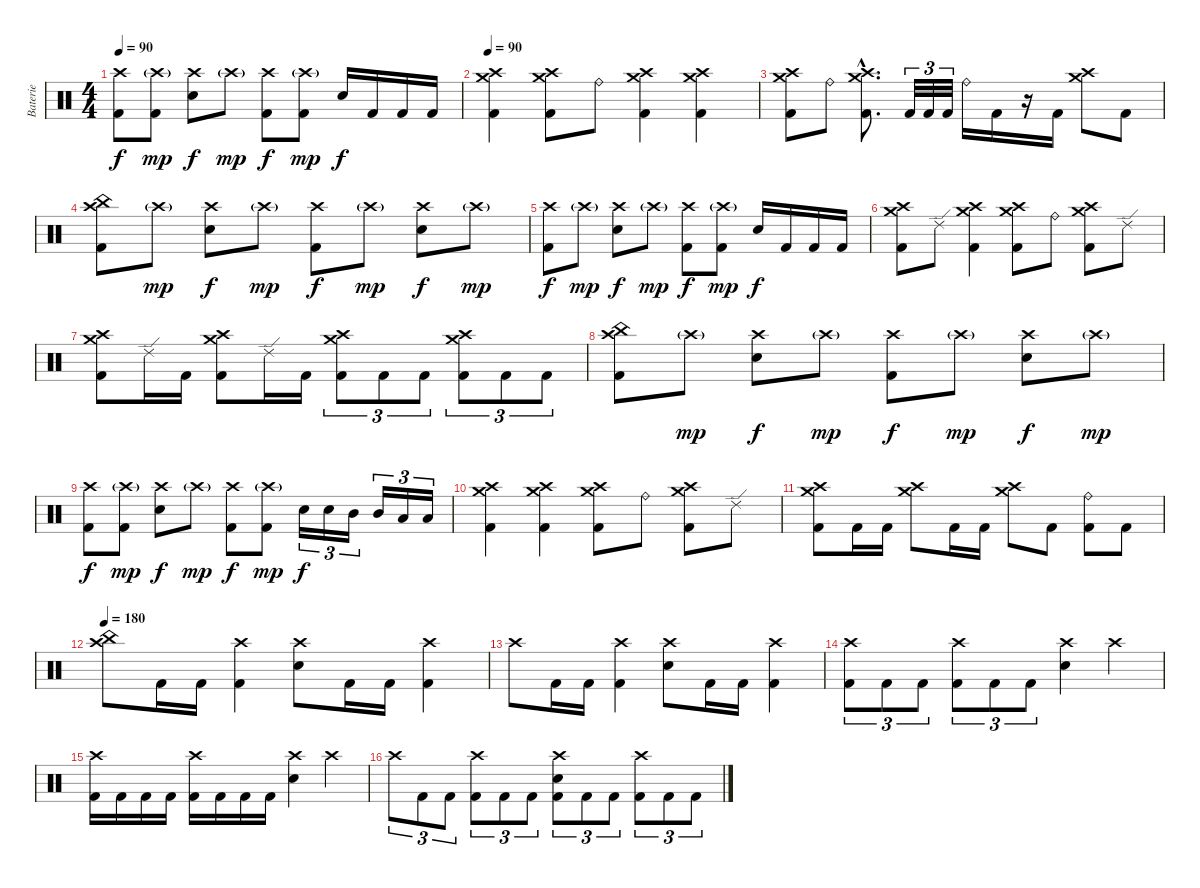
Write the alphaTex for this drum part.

\track ("Baterie" "Baterie") {instrument percussion}
\staff {score}
\articulation defaults
\ts (4 4)
\tempo 90
\clef neutral
\ks c
("Crash high (hit)" "Kick (hit) 2").8{dy f} ("Crash high (hit)"{g} "Kick (hit) 2").8{dy mp} ("Crash high (hit)" "Electric Snare (hit)").8{dy f} "Crash high (hit)"{g}.8{dy mp} ("Crash high (hit)" "Kick (hit) 2").8{dy f} ("Crash high (hit)"{g} "Kick (hit) 2").8{dy mp} "Electric Snare (hit)".16{dy f} "Kick (hit) 2".16 "Kick (hit) 2".16 "Kick (hit) 2".16 |
\tempo 90
("Crash high (hit)" "Crash medium (hit)" "Kick (hit) 2").4 ("Crash medium (hit)" "Crash high (hit)" "Kick (hit) 2").8 "Ride (bell)".8 ("Crash medium (hit)" "Crash high (hit)" "Kick (hit) 2").4 ("Crash medium (hit)" "Crash high (hit)" "Kick (hit) 2").4 |
("Crash high (hit)" "Crash medium (hit)" "Kick (hit) 2").8 "Ride (bell)".8 ("Crash high (hit)"{hac} "Crash medium (hit)"{hac} "Kick (hit) 2"{hac}).8{d} "Kick (hit) 2".32{tu (3 2)} "Kick (hit) 2".32{tu (3 2)} "Kick (hit) 2".32{tu (3 2)} "Ride (bell)".16 "Kick (hit) 2".16 r.16 "Kick (hit) 2".16 ("Crash medium (hit)" "Crash high (hit)").8 "Kick (hit) 2".8 |
("China (hit)" "Crash high (hit)" "Kick (hit) 2").8 "Crash high (hit)"{g}.8{dy mp} ("Crash high (hit)" "Electric Snare (hit)").8{dy f} "Crash high (hit)"{g}.8{dy mp} ("Crash high (hit)" "Kick (hit) 2").8{dy f} "Crash high (hit)"{g}.8{dy mp} ("Crash high (hit)" "Electric Snare (hit)").8{dy f} "Crash high (hit)"{g}.8{dy mp} |
("Crash high (hit)" "Kick (hit) 2").8{dy f} "Crash high (hit)"{g}.8{dy mp} ("Crash high (hit)" "Electric Snare (hit)").8{dy f} "Crash high (hit)"{g}.8{dy mp} ("Crash high (hit)" "Kick (hit) 2").8{dy f} ("Crash high (hit)"{g} "Kick (hit) 2").8{dy mp} "Electric Snare (hit)".16{dy f} "Kick (hit) 2".16 "Kick (hit) 2".16 "Kick (hit) 2".16 |
("Crash high (hit)" "Crash medium (hit)" "Kick (hit) 2").8 "Ride (edge) 2".8 ("Crash medium (hit)" "Crash high (hit)" "Kick (hit) 2").4 ("Crash high (hit)" "Crash medium (hit)" "Kick (hit) 2").8 "Ride (bell)".8 ("Crash high (hit)" "Crash medium (hit)" "Kick (hit) 2").8 "Ride (edge) 2".8 |
("Crash medium (hit)" "Crash high (hit)" "Kick (hit) 2").8 "Ride (edge) 2".16 "Kick (hit) 2".16 ("Crash medium (hit)" "Crash high (hit)" "Kick (hit) 2").8 "Ride (edge) 2".16 "Kick (hit) 2".16 ("Crash medium (hit)" "Crash high (hit)" "Kick (hit) 2").8{tu (3 2)} "Kick (hit) 2".8{tu (3 2)} "Kick (hit) 2".8{tu (3 2)} ("Crash medium (hit)" "Crash high (hit)" "Kick (hit) 2").8{tu (3 2)} "Kick (hit) 2".8{tu (3 2)} "Kick (hit) 2".8{tu (3 2)} |
("China (hit)" "Crash high (hit)" "Kick (hit) 2").8 "Crash high (hit)"{g}.8{dy mp} ("Crash high (hit)" "Electric Snare (hit)").8{dy f} "Crash high (hit)"{g}.8{dy mp} ("Crash high (hit)" "Kick (hit) 2").8{dy f} "Crash high (hit)"{g}.8{dy mp} ("Crash high (hit)" "Electric Snare (hit)").8{dy f} "Crash high (hit)"{g}.8{dy mp} |
("Crash high (hit)" "Kick (hit) 2").8{dy f} ("Crash high (hit)"{g} "Kick (hit) 2").8{dy mp} ("Crash high (hit)" "Electric Snare (hit)").8{dy f} "Crash high (hit)"{g}.8{dy mp} ("Crash high (hit)" "Kick (hit) 2").8{dy f} ("Crash high (hit)"{g} "Kick (hit) 2").8{dy mp} "Electric Snare (hit)".16{tu (3 2) dy f} "Electric Snare (hit)".16{tu (3 2)} "Mid Tom (hit)".16{tu (3 2)} "Mid Tom (hit)".16{tu (3 2)} "Low Tom (hit)".16{tu (3 2)} "Low Tom (hit)".16{tu (3 2)} |
("Crash medium (hit)" "Crash high (hit)" "Kick (hit) 2").4 ("Crash medium (hit)" "Crash high (hit)" "Kick (hit) 2").4 ("Crash medium (hit)" "Crash high (hit)" "Kick (hit) 2").8 "Ride (bell)".8 ("Crash medium (hit)" "Crash high (hit)" "Kick (hit) 2").8 "Ride (edge) 2".8 |
("Crash medium (hit)" "Crash high (hit)" "Kick (hit) 2").8 "Kick (hit) 2".16 "Kick (hit) 2".16 ("Crash medium (hit)" "Crash high (hit)").8 "Kick (hit) 2".16 "Kick (hit) 2".16 ("Crash medium (hit)" "Crash high (hit)").8 "Kick (hit) 2".8 ("Ride (bell)" "Kick (hit) 2").8 "Kick (hit) 2".8 |
\tempo 180
("China (hit)" "Crash high (hit)").8 "Kick (hit) 2".16 "Kick (hit) 2".16 ("Crash high (hit)" "Kick (hit) 2").4 ("Crash high (hit)" "Electric Snare (hit)").8 "Kick (hit) 2".16 "Kick (hit) 2".16 ("Crash high (hit)" "Kick (hit) 2").4 |
"Crash high (hit)".8 "Kick (hit) 2".16 "Kick (hit) 2".16 ("Crash high (hit)" "Kick (hit) 2").4 ("Crash high (hit)" "Electric Snare (hit)").8 "Kick (hit) 2".16 "Kick (hit) 2".16 ("Crash high (hit)" "Kick (hit) 2").4 |
("Crash high (hit)" "Kick (hit) 2").8{tu (3 2)} "Kick (hit) 2".8{tu (3 2)} "Kick (hit) 2".8{tu (3 2)} ("Crash high (hit)" "Kick (hit) 2").8{tu (3 2)} "Kick (hit) 2".8{tu (3 2)} "Kick (hit) 2".8{tu (3 2)} ("Crash high (hit)" "Electric Snare (hit)").4 "Crash high (hit)".4 |
("Crash high (hit)" "Kick (hit) 2").16 "Kick (hit) 2".16 "Kick (hit) 2".16 "Kick (hit) 2".16 ("Crash high (hit)" "Kick (hit) 2").16 "Kick (hit) 2".16 "Kick (hit) 2".16 "Kick (hit) 2".16 ("Crash high (hit)" "Electric Snare (hit)").4 "Crash high (hit)".4 |
"Crash high (hit)".8{tu (3 2)} "Kick (hit) 2".8{tu (3 2)} "Kick (hit) 2".8{tu (3 2)} ("Crash high (hit)" "Kick (hit) 2").8{tu (3 2)} "Kick (hit) 2".8{tu (3 2)} "Kick (hit) 2".8{tu (3 2)} ("Crash high (hit)" "Electric Snare (hit)" "Kick (hit) 2").8{tu (3 2)} "Kick (hit) 2".8{tu (3 2)} "Kick (hit) 2".8{tu (3 2)} ("Crash high (hit)" "Kick (hit) 2").8{tu (3 2)} "Kick (hit) 2".8{tu (3 2)} "Kick (hit) 2".8{tu (3 2)}
